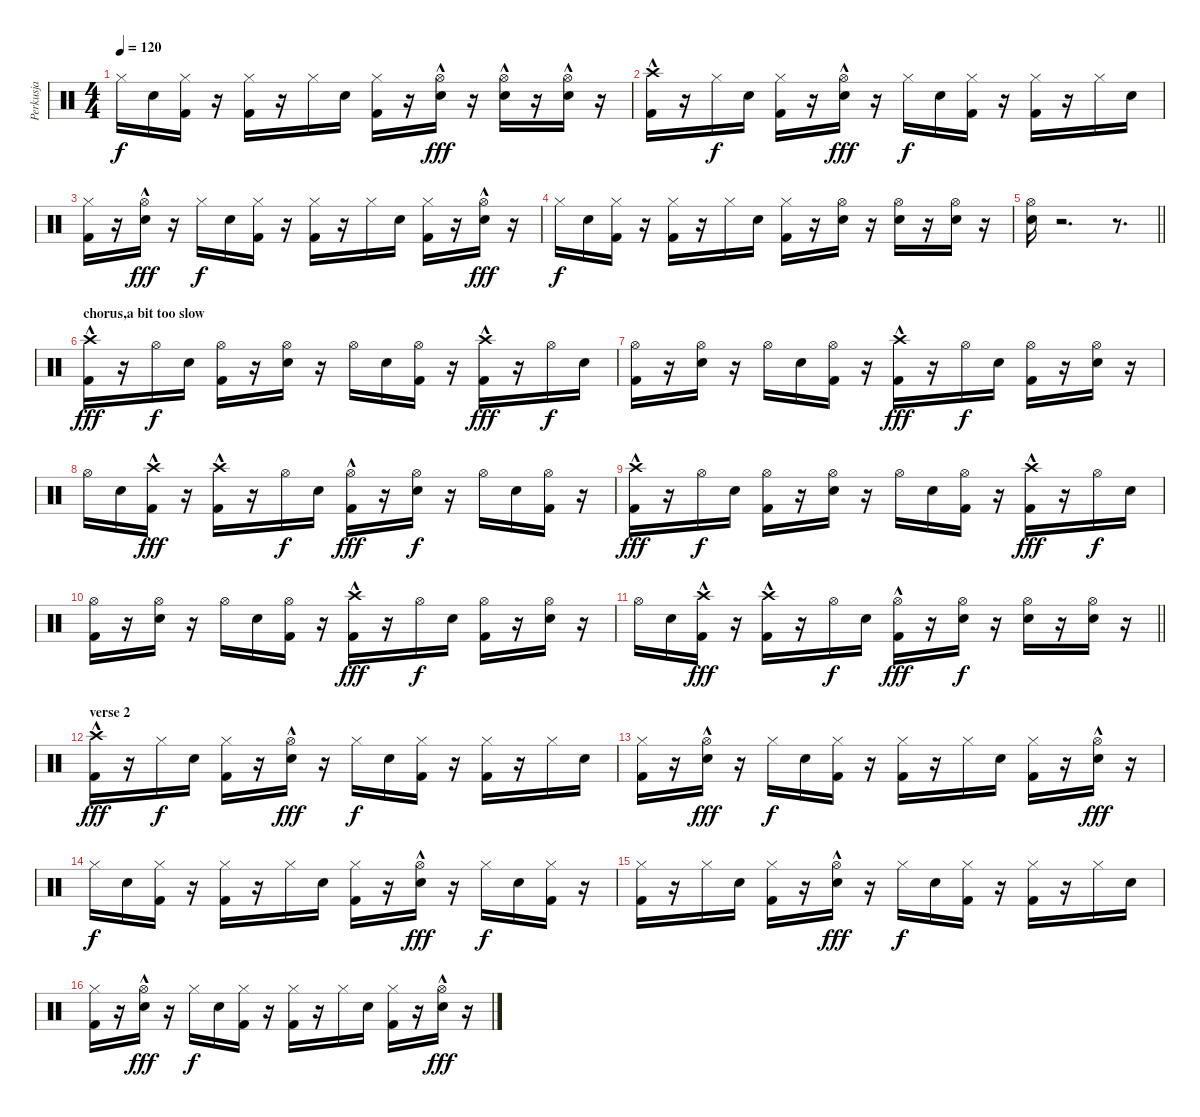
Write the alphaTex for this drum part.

\track ("Perkusja" "Perkusja") {instrument percussion}
\staff {score}
\articulation defaults
\ts (4 4)
\tempo 120
\clef neutral
\ks c "Hi-Hat (closed)".16{dy f} "Electric Snare (hit)".16
("Hi-Hat (closed)" "Kick (hit) 2").16 r.16 ("Hi-Hat (closed)" "Kick (hit) 2").16 r.16 "Hi-Hat (closed)".16 "Electric Snare (hit)".16 ("Hi-Hat (closed)" "Kick (hit) 2").16 r.16 ("Hi-Hat (open)"{hac} "Electric Snare (hit)"{hac}).16{dy fff} r.16 ("Hi-Hat (open)"{hac} "Electric Snare (hit)"{hac}).16 r.16 ("Hi-Hat (open)"{hac} "Electric Snare (hit)"{hac}).16 r.16 |
("Crash high (hit)"{hac} "Kick (hit) 2").16 r.16 "Hi-Hat (closed)".16{dy f} "Electric Snare (hit)".16 ("Hi-Hat (closed)" "Kick (hit) 2").16 r.16 ("Hi-Hat (open)"{hac} "Electric Snare (hit)"{hac}).16{dy fff} r.16 "Hi-Hat (closed)".16{dy f} "Electric Snare (hit)".16 ("Hi-Hat (closed)" "Kick (hit) 2").16 r.16 ("Hi-Hat (closed)" "Kick (hit) 2").16 r.16 "Hi-Hat (closed)".16 "Electric Snare (hit)".16 |
("Hi-Hat (closed)" "Kick (hit) 2").16 r.16 ("Hi-Hat (open)"{hac} "Electric Snare (hit)"{hac}).16{dy fff} r.16 "Hi-Hat (closed)".16{dy f} "Electric Snare (hit)".16 ("Hi-Hat (closed)" "Kick (hit) 2").16 r.16 ("Hi-Hat (closed)" "Kick (hit) 2").16 r.16 "Hi-Hat (closed)".16 "Electric Snare (hit)".16 ("Hi-Hat (closed)" "Kick (hit) 2").16 r.16 ("Hi-Hat (open)"{hac} "Electric Snare (hit)"{hac}).16{dy fff} r.16 |
"Hi-Hat (closed)".16{dy f} "Electric Snare (hit)".16 ("Hi-Hat (closed)" "Kick (hit) 2").16 r.16 ("Hi-Hat (closed)" "Kick (hit) 2").16 r.16 "Hi-Hat (closed)".16 "Electric Snare (hit)".16 ("Hi-Hat (closed)" "Kick (hit) 2").16 r.16 ("Hi-Hat (open)" "Electric Snare (hit)").16 r.16 ("Hi-Hat (open)" "Electric Snare (hit)").16 r.16 ("Hi-Hat (open)" "Electric Snare (hit)").16 r.16 |
\barLineRight lightlight
("Hi-Hat (open)" "Electric Snare (hit)").16 r.2{d} r.8{d} |
\section ("" "chorus,a bit too slow")
("Crash high (hit)"{hac} "Kick (hit) 2").16{dy fff} r.16 "Hi-Hat (open)".16{dy f} "Electric Snare (hit)".16 ("Hi-Hat (open)" "Kick (hit) 2").16 r.16 ("Hi-Hat (open)" "Electric Snare (hit)").16 r.16 "Hi-Hat (open)".16 "Electric Snare (hit)".16 ("Hi-Hat (open)" "Kick (hit) 2").16 r.16 ("Crash high (hit)"{hac} "Kick (hit) 2").16{dy fff} r.16 "Hi-Hat (open)".16{dy f} "Electric Snare (hit)".16 |
("Hi-Hat (open)" "Kick (hit) 2").16 r.16 ("Hi-Hat (open)" "Electric Snare (hit)").16 r.16 "Hi-Hat (open)".16 "Electric Snare (hit)".16 ("Hi-Hat (open)" "Kick (hit) 2").16 r.16 ("Crash high (hit)"{hac} "Kick (hit) 2").16{dy fff} r.16 "Hi-Hat (open)".16{dy f} "Electric Snare (hit)".16 ("Hi-Hat (open)" "Kick (hit) 2").16 r.16 ("Hi-Hat (open)" "Electric Snare (hit)").16 r.16 |
"Hi-Hat (open)".16 "Electric Snare (hit)".16 ("Crash high (hit)"{hac} "Kick (hit) 2").16{dy fff} r.16 ("Crash high (hit)"{hac} "Kick (hit) 2").16 r.16 "Hi-Hat (open)".16{dy f} "Electric Snare (hit)".16 ("Hi-Hat (open)"{hac} "Kick (hit) 2").16{dy fff} r.16 ("Hi-Hat (open)" "Electric Snare (hit)").16{dy f} r.16 "Hi-Hat (open)".16 "Electric Snare (hit)".16 ("Hi-Hat (open)" "Kick (hit) 2").16 r.16 |
("Crash high (hit)"{hac} "Kick (hit) 2").16{dy fff} r.16 "Hi-Hat (open)".16{dy f} "Electric Snare (hit)".16 ("Hi-Hat (open)" "Kick (hit) 2").16 r.16 ("Hi-Hat (open)" "Electric Snare (hit)").16 r.16 "Hi-Hat (open)".16 "Electric Snare (hit)".16 ("Hi-Hat (open)" "Kick (hit) 2").16 r.16 ("Crash high (hit)"{hac} "Kick (hit) 2").16{dy fff} r.16 "Hi-Hat (open)".16{dy f} "Electric Snare (hit)".16 |
("Hi-Hat (open)" "Kick (hit) 2").16 r.16 ("Hi-Hat (open)" "Electric Snare (hit)").16 r.16 "Hi-Hat (open)".16 "Electric Snare (hit)".16 ("Hi-Hat (open)" "Kick (hit) 2").16 r.16 ("Crash high (hit)"{hac} "Kick (hit) 2").16{dy fff} r.16 "Hi-Hat (open)".16{dy f} "Electric Snare (hit)".16 ("Hi-Hat (open)" "Kick (hit) 2").16 r.16 ("Hi-Hat (open)" "Electric Snare (hit)").16 r.16 |
\barLineRight lightlight "Hi-Hat (open)".16 "Electric Snare (hit)".16
("Crash high (hit)"{hac} "Kick (hit) 2").16{dy fff} r.16 ("Crash high (hit)"{hac} "Kick (hit) 2").16 r.16 "Hi-Hat (open)".16{dy f} "Electric Snare (hit)".16 ("Hi-Hat (open)"{hac} "Kick (hit) 2").16{dy fff} r.16 ("Hi-Hat (open)" "Electric Snare (hit)").16{dy f} r.16 ("Hi-Hat (open)" "Electric Snare (hit)").16 r.16 ("Hi-Hat (open)" "Electric Snare (hit)").16 r.16 |
\section ("" "verse 2")
("Crash high (hit)"{hac} "Kick (hit) 2").16{dy fff} r.16 "Hi-Hat (closed)".16{dy f} "Electric Snare (hit)".16 ("Hi-Hat (closed)" "Kick (hit) 2").16 r.16 ("Hi-Hat (open)"{hac} "Electric Snare (hit)"{hac}).16{dy fff} r.16 "Hi-Hat (closed)".16{dy f} "Electric Snare (hit)".16 ("Hi-Hat (closed)" "Kick (hit) 2").16 r.16 ("Hi-Hat (closed)" "Kick (hit) 2").16 r.16 "Hi-Hat (closed)".16 "Electric Snare (hit)".16 |
("Hi-Hat (closed)" "Kick (hit) 2").16 r.16 ("Hi-Hat (open)"{hac} "Electric Snare (hit)"{hac}).16{dy fff} r.16 "Hi-Hat (closed)".16{dy f} "Electric Snare (hit)".16 ("Hi-Hat (closed)" "Kick (hit) 2").16 r.16 ("Hi-Hat (closed)" "Kick (hit) 2").16 r.16 "Hi-Hat (closed)".16 "Electric Snare (hit)".16 ("Hi-Hat (closed)" "Kick (hit) 2").16 r.16 ("Hi-Hat (open)"{hac} "Electric Snare (hit)"{hac}).16{dy fff} r.16 |
"Hi-Hat (closed)".16{dy f} "Electric Snare (hit)".16 ("Hi-Hat (closed)" "Kick (hit) 2").16 r.16 ("Hi-Hat (closed)" "Kick (hit) 2").16 r.16 "Hi-Hat (closed)".16 "Electric Snare (hit)".16 ("Hi-Hat (closed)" "Kick (hit) 2").16 r.16 ("Hi-Hat (open)"{hac} "Electric Snare (hit)"{hac}).16{dy fff} r.16 "Hi-Hat (closed)".16{dy f} "Electric Snare (hit)".16 ("Hi-Hat (closed)" "Kick (hit) 2").16 r.16 |
("Hi-Hat (closed)" "Kick (hit) 2").16 r.16 "Hi-Hat (closed)".16 "Electric Snare (hit)".16 ("Hi-Hat (closed)" "Kick (hit) 2").16 r.16 ("Hi-Hat (open)"{hac} "Electric Snare (hit)"{hac}).16{dy fff} r.16 "Hi-Hat (closed)".16{dy f} "Electric Snare (hit)".16 ("Hi-Hat (closed)" "Kick (hit) 2").16 r.16 ("Hi-Hat (closed)" "Kick (hit) 2").16 r.16 "Hi-Hat (closed)".16 "Electric Snare (hit)".16 |
("Hi-Hat (closed)" "Kick (hit) 2").16 r.16 ("Hi-Hat (open)"{hac} "Electric Snare (hit)"{hac}).16{dy fff} r.16 "Hi-Hat (closed)".16{dy f} "Electric Snare (hit)".16 ("Hi-Hat (closed)" "Kick (hit) 2").16 r.16 ("Hi-Hat (closed)" "Kick (hit) 2").16 r.16 "Hi-Hat (closed)".16 "Electric Snare (hit)".16 ("Hi-Hat (closed)" "Kick (hit) 2").16 r.16 ("Hi-Hat (open)"{hac} "Electric Snare (hit)"{hac}).16{dy fff} r.16
